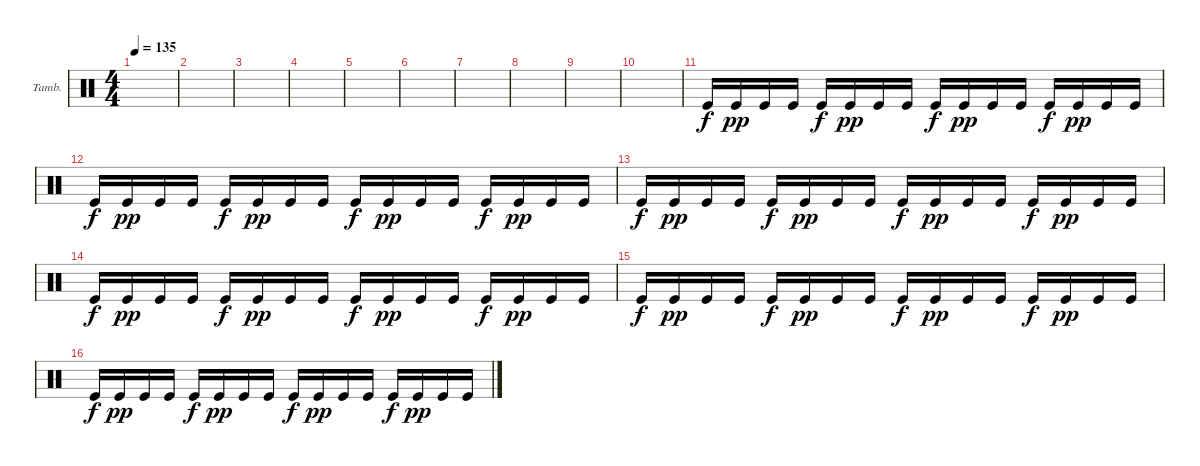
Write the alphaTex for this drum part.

\defaultSystemsLayout 4
\bracketExtendMode groupsimilarinstruments
\firstSystemTrackNameOrientation horizontal
\otherSystemsTrackNameOrientation horizontal
\track ("Tambourine" "Tamb.") {instrument percussion}
\staff {score}
\articulation defaults
\ts (4 4)
\tempo 135
\clef neutral
\scale
0.333333
\ks c
|
\scale
0.333333 |
\scale
0.333333 |
\scale
0.333333 |
\scale
0.333333 |
\scale
0.333333 |
\scale
0.333333 |
\scale
0.333333 |
\scale
0.333333 |
\scale
0.333333 |
\scale
0.333333 "Kick (hit)".16 "Kick (hit)".16{dy pp} "Kick (hit)".16 "Kick (hit)".16 "Kick (hit)".16{dy f} "Kick (hit)".16{dy pp} "Kick (hit)".16 "Kick (hit)".16 "Kick (hit)".16{dy f} "Kick (hit)".16{dy pp} "Kick (hit)".16 "Kick (hit)".16 "Kick (hit)".16{dy f} "Kick (hit)".16{dy pp} "Kick (hit)".16 "Kick (hit)".16 |
\scale
0.333333 "Kick (hit)".16{dy f} "Kick (hit)".16{dy pp} "Kick (hit)".16 "Kick (hit)".16 "Kick (hit)".16{dy f} "Kick (hit)".16{dy pp} "Kick (hit)".16 "Kick (hit)".16 "Kick (hit)".16{dy f} "Kick (hit)".16{dy pp} "Kick (hit)".16 "Kick (hit)".16 "Kick (hit)".16{dy f} "Kick (hit)".16{dy pp} "Kick (hit)".16 "Kick (hit)".16 |
\scale
0.333333 "Kick (hit)".16{dy f} "Kick (hit)".16{dy pp} "Kick (hit)".16 "Kick (hit)".16 "Kick (hit)".16{dy f} "Kick (hit)".16{dy pp} "Kick (hit)".16 "Kick (hit)".16 "Kick (hit)".16{dy f} "Kick (hit)".16{dy pp} "Kick (hit)".16 "Kick (hit)".16 "Kick (hit)".16{dy f} "Kick (hit)".16{dy pp} "Kick (hit)".16 "Kick (hit)".16 |
\scale
0.333333 "Kick (hit)".16{dy f} "Kick (hit)".16{dy pp} "Kick (hit)".16 "Kick (hit)".16 "Kick (hit)".16{dy f} "Kick (hit)".16{dy pp} "Kick (hit)".16 "Kick (hit)".16 "Kick (hit)".16{dy f} "Kick (hit)".16{dy pp} "Kick (hit)".16 "Kick (hit)".16 "Kick (hit)".16{dy f} "Kick (hit)".16{dy pp} "Kick (hit)".16 "Kick (hit)".16 |
\scale
0.333333 "Kick (hit)".16{dy f} "Kick (hit)".16{dy pp} "Kick (hit)".16 "Kick (hit)".16 "Kick (hit)".16{dy f} "Kick (hit)".16{dy pp} "Kick (hit)".16 "Kick (hit)".16 "Kick (hit)".16{dy f} "Kick (hit)".16{dy pp} "Kick (hit)".16 "Kick (hit)".16 "Kick (hit)".16{dy f} "Kick (hit)".16{dy pp} "Kick (hit)".16 "Kick (hit)".16 |
\scale
0.333333 "Kick (hit)".16{dy f} "Kick (hit)".16{dy pp} "Kick (hit)".16 "Kick (hit)".16 "Kick (hit)".16{dy f} "Kick (hit)".16{dy pp} "Kick (hit)".16 "Kick (hit)".16 "Kick (hit)".16{dy f} "Kick (hit)".16{dy pp} "Kick (hit)".16 "Kick (hit)".16 "Kick (hit)".16{dy f} "Kick (hit)".16{dy pp} "Kick (hit)".16 "Kick (hit)".16
